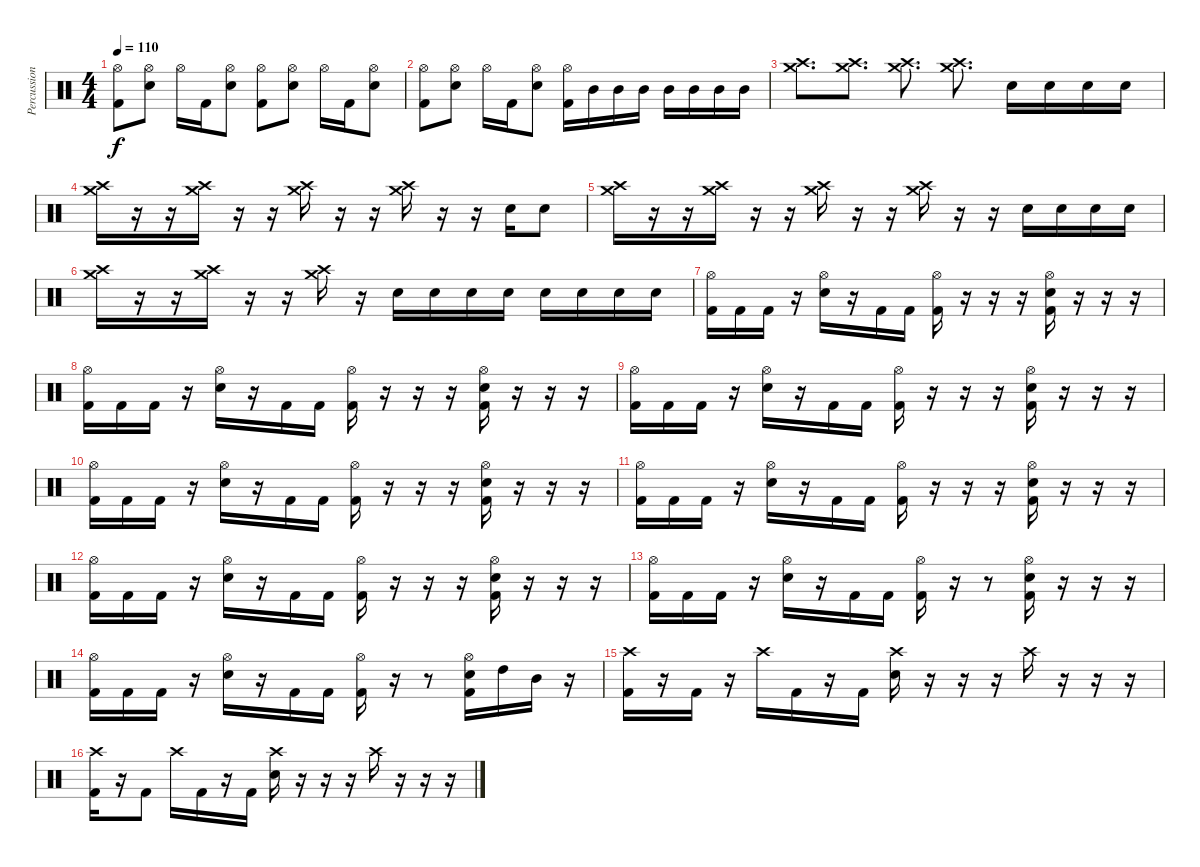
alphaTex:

\track ("Percussions" "Percussion") {instrument percussion}
\staff {score}
\articulation defaults
\ts (4 4)
\tempo 110
\clef neutral
\ks c
("Hi-Hat (open)" "Kick (hit) 2").8{dy f} ("Hi-Hat (open)" "Electric Snare (hit)").8 "Hi-Hat (open)".16 "Kick (hit) 2".16 ("Hi-Hat (open)" "Electric Snare (hit)").8 ("Hi-Hat (open)" "Kick (hit) 2").8 ("Hi-Hat (open)" "Electric Snare (hit)").8 "Hi-Hat (open)".16 "Kick (hit) 2".16 ("Hi-Hat (open)" "Electric Snare (hit)").8 |
("Hi-Hat (open)" "Kick (hit) 2").8 ("Hi-Hat (open)" "Electric Snare (hit)").8 "Hi-Hat (open)".16 "Kick (hit) 2".16 ("Hi-Hat (open)" "Electric Snare (hit)").8 ("Hi-Hat (open)" "Kick (hit) 2").16 "Mid Tom (hit)".16 "Mid Tom (hit)".16 "Mid Tom (hit)".16 "Mid Tom (hit)".16 "Mid Tom (hit)".16 "Mid Tom (hit)".16 "Mid Tom (hit)".16 |
("Crash high (hit)" "Crash medium (hit)").8{d} ("Crash high (hit)" "Crash medium (hit)").8{d} ("Crash high (hit)" "Crash medium (hit)").8{d} ("Crash high (hit)" "Crash medium (hit)").8{d} "Electric Snare (hit)".16 "Electric Snare (hit)".16 "Electric Snare (hit)".16 "Electric Snare (hit)".16 |
("Crash high (hit)" "Crash medium (hit)").16 r.16 r.16 ("Crash high (hit)" "Crash medium (hit)").16 r.16 r.16 ("Crash high (hit)" "Crash medium (hit)").16 r.16 r.16 ("Crash high (hit)" "Crash medium (hit)").16 r.16 r.16 "Electric Snare (hit)".16 "Electric Snare (hit)".8 |
("Crash high (hit)" "Crash medium (hit)").16 r.16 r.16 ("Crash high (hit)" "Crash medium (hit)").16 r.16 r.16 ("Crash high (hit)" "Crash medium (hit)").16 r.16 r.16 ("Crash high (hit)" "Crash medium (hit)").16 r.16 r.16 "Electric Snare (hit)".16 "Electric Snare (hit)".16 "Electric Snare (hit)".16 "Electric Snare (hit)".16 |
("Crash high (hit)" "Crash medium (hit)").16 r.16 r.16 ("Crash high (hit)" "Crash medium (hit)").16 r.16 r.16 ("Crash high (hit)" "Crash medium (hit)").16 r.16 "Electric Snare (hit)".16 "Electric Snare (hit)".16 "Electric Snare (hit)".16 "Electric Snare (hit)".16 "Electric Snare (hit)".16 "Electric Snare (hit)".16 "Electric Snare (hit)".16 "Electric Snare (hit)".16 |
("Hi-Hat (open)" "Kick (hit) 2").16 "Kick (hit) 2".16 "Kick (hit) 2".16 r.16 ("Hi-Hat (open)" "Electric Snare (hit)").16 r.16 "Kick (hit) 2".16 "Kick (hit) 2".16 ("Hi-Hat (open)" "Kick (hit) 2").16 r.16 r.16 r.16 ("Hi-Hat (open)" "Electric Snare (hit)" "Kick (hit) 2").16 r.16 r.16 r.16 |
("Hi-Hat (open)" "Kick (hit) 2").16 "Kick (hit) 2".16 "Kick (hit) 2".16 r.16 ("Hi-Hat (open)" "Electric Snare (hit)").16 r.16 "Kick (hit) 2".16 "Kick (hit) 2".16 ("Hi-Hat (open)" "Kick (hit) 2").16 r.16 r.16 r.16 ("Hi-Hat (open)" "Electric Snare (hit)" "Kick (hit) 2").16 r.16 r.16 r.16 |
("Hi-Hat (open)" "Kick (hit) 2").16 "Kick (hit) 2".16 "Kick (hit) 2".16 r.16 ("Hi-Hat (open)" "Electric Snare (hit)").16 r.16 "Kick (hit) 2".16 "Kick (hit) 2".16 ("Hi-Hat (open)" "Kick (hit) 2").16 r.16 r.16 r.16 ("Hi-Hat (open)" "Electric Snare (hit)" "Kick (hit) 2").16 r.16 r.16 r.16 |
("Hi-Hat (open)" "Kick (hit) 2").16 "Kick (hit) 2".16 "Kick (hit) 2".16 r.16 ("Hi-Hat (open)" "Electric Snare (hit)").16 r.16 "Kick (hit) 2".16 "Kick (hit) 2".16 ("Hi-Hat (open)" "Kick (hit) 2").16 r.16 r.16 r.16 ("Hi-Hat (open)" "Electric Snare (hit)" "Kick (hit) 2").16 r.16 r.16 r.16 |
("Hi-Hat (open)" "Kick (hit) 2").16 "Kick (hit) 2".16 "Kick (hit) 2".16 r.16 ("Hi-Hat (open)" "Electric Snare (hit)").16 r.16 "Kick (hit) 2".16 "Kick (hit) 2".16 ("Hi-Hat (open)" "Kick (hit) 2").16 r.16 r.16 r.16 ("Hi-Hat (open)" "Electric Snare (hit)" "Kick (hit) 2").16 r.16 r.16 r.16 |
("Hi-Hat (open)" "Kick (hit) 2").16 "Kick (hit) 2".16 "Kick (hit) 2".16 r.16 ("Hi-Hat (open)" "Electric Snare (hit)").16 r.16 "Kick (hit) 2".16 "Kick (hit) 2".16 ("Hi-Hat (open)" "Kick (hit) 2").16 r.16 r.16 r.16 ("Hi-Hat (open)" "Electric Snare (hit)" "Kick (hit) 2").16 r.16 r.16 r.16 |
("Hi-Hat (open)" "Kick (hit) 2").16 "Kick (hit) 2".16 "Kick (hit) 2".16 r.16 ("Hi-Hat (open)" "Electric Snare (hit)").16 r.16 "Kick (hit) 2".16 "Kick (hit) 2".16 ("Hi-Hat (open)" "Kick (hit) 2").16 r.16 r.8 ("Hi-Hat (open)" "Electric Snare (hit)" "Kick (hit) 2").16 r.16 r.16 r.16 |
("Hi-Hat (open)" "Kick (hit) 2").16 "Kick (hit) 2".16 "Kick (hit) 2".16 r.16 ("Hi-Hat (open)" "Electric Snare (hit)").16 r.16 "Kick (hit) 2".16 "Kick (hit) 2".16 ("Hi-Hat (open)" "Kick (hit) 2").16 r.16 r.8 ("Hi-Hat (open)" "Electric Snare (hit)" "Kick (hit) 2").16 "High Tom (hit)".16 "Mid Tom (hit)".16 r.16 |
("Crash high (hit)" "Kick (hit) 2").16 r.16 "Kick (hit) 2".16 r.16 "Crash high (hit)".16 "Kick (hit) 2".16 r.16 "Kick (hit) 2".16 ("Crash high (hit)" "Electric Snare (hit)").16 r.16 r.16 r.16 "Crash high (hit)".16 r.16 r.16 r.16 |
("Crash high (hit)" "Kick (hit) 2").16 r.16 "Kick (hit) 2".8 "Crash high (hit)".16 "Kick (hit) 2".16 r.16 "Kick (hit) 2".16 ("Crash high (hit)" "Electric Snare (hit)").16 r.16 r.16 r.16 "Crash high (hit)".16 r.16 r.16 r.16
